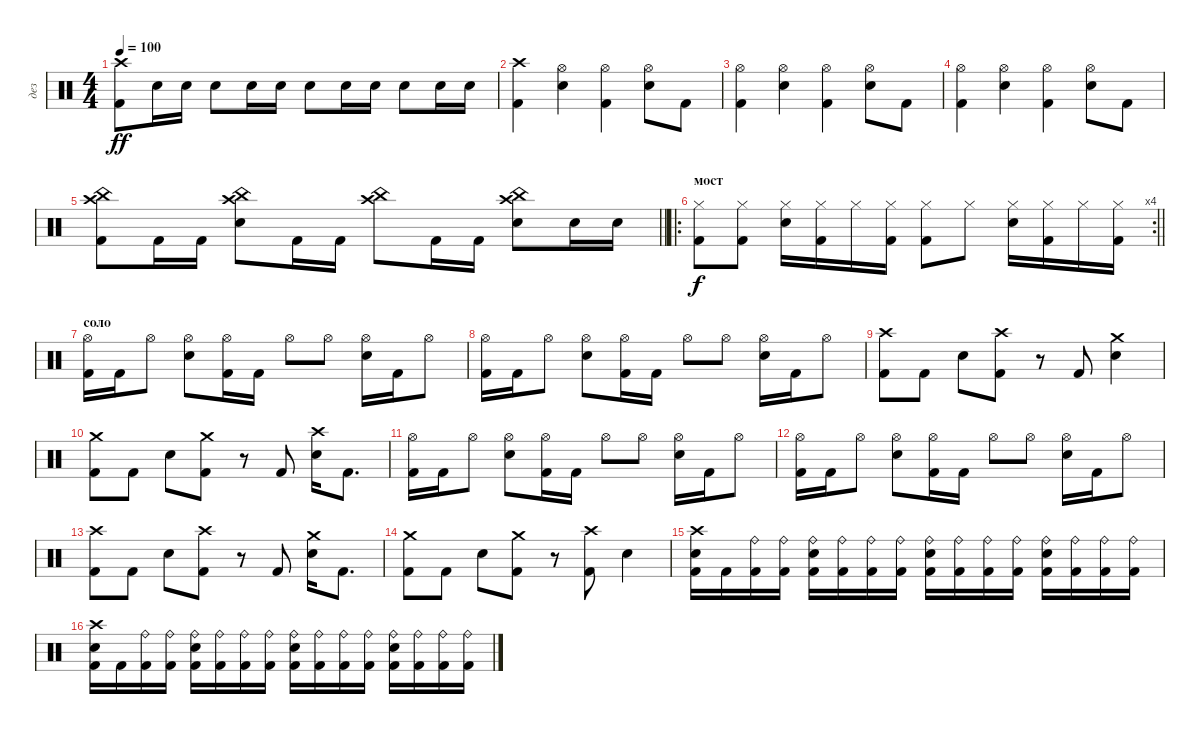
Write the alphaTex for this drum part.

\track ("дез" "дез") {instrument percussion}
\staff {score}
\articulation defaults
\ts (4 4)
\tempo 100
\clef neutral
\ks c
("Kick (hit) 2" "Crash high (hit)").8{dy ff} "Electric Snare (hit)".16 "Electric Snare (hit)".16 "Electric Snare (hit)".8 "Electric Snare (hit)".16 "Electric Snare (hit)".16 "Electric Snare (hit)".8 "Electric Snare (hit)".16 "Electric Snare (hit)".16 "Electric Snare (hit)".8 "Electric Snare (hit)".16 "Electric Snare (hit)".16 |
("Kick (hit) 2" "Crash high (hit)").4 ("Electric Snare (hit)" "Hi-Hat (open)").4 ("Kick (hit) 2" "Hi-Hat (open)").4 ("Electric Snare (hit)" "Hi-Hat (open)").8 "Kick (hit) 2".8 |
("Kick (hit) 2" "Hi-Hat (open)").4 ("Electric Snare (hit)" "Hi-Hat (open)").4 ("Kick (hit) 2" "Hi-Hat (open)").4 ("Electric Snare (hit)" "Hi-Hat (open)").8 "Kick (hit) 2".8 |
("Kick (hit) 2" "Hi-Hat (open)").4 ("Electric Snare (hit)" "Hi-Hat (open)").4 ("Kick (hit) 2" "Hi-Hat (open)").4 ("Electric Snare (hit)" "Hi-Hat (open)").8 "Kick (hit) 2".8 |
\barLineRight lightlight
("Kick (hit) 2" "Crash high (hit)" "China (hit)").8 "Kick (hit) 2".16 "Kick (hit) 2".16 ("Electric Snare (hit)" "Crash high (hit)" "China (hit)").8 "Kick (hit) 2".16 "Kick (hit) 2".16 ("Crash high (hit)" "China (hit)").8 "Kick (hit) 2".16 "Kick (hit) 2".16 ("Electric Snare (hit)" "Crash high (hit)" "China (hit)").8 "Electric Snare (hit)".16 "Electric Snare (hit)".16 |
\ro
\rc 4
\section ("" "мост")
\barLineRight lightlight
("Hi-Hat (closed)" "Kick (hit) 2").8{dy f} ("Hi-Hat (closed)" "Kick (hit) 2").8 ("Hi-Hat (closed)" "Electric Snare (hit)").16 ("Hi-Hat (closed)" "Kick (hit) 2").16 "Hi-Hat (closed)".16 ("Hi-Hat (closed)" "Kick (hit) 2").16 ("Hi-Hat (closed)" "Kick (hit) 2").8 "Hi-Hat (closed)".8 ("Hi-Hat (closed)" "Electric Snare (hit)").16 ("Hi-Hat (closed)" "Kick (hit) 2").16 "Hi-Hat (closed)".16 ("Hi-Hat (closed)" "Kick (hit) 2").16 |
\section ("" "соло")
("Hi-Hat (open)" "Kick (hit) 2").16 "Kick (hit) 2".16 "Hi-Hat (open)".8 ("Hi-Hat (open)" "Electric Snare (hit)").8 ("Hi-Hat (open)" "Kick (hit) 2").16 "Kick (hit) 2".16 "Hi-Hat (open)".8 "Hi-Hat (open)".8 ("Hi-Hat (open)" "Electric Snare (hit)").16 "Kick (hit) 2".16 "Hi-Hat (open)".8 |
("Hi-Hat (open)" "Kick (hit) 2").16 "Kick (hit) 2".16 "Hi-Hat (open)".8 ("Hi-Hat (open)" "Electric Snare (hit)").8 ("Hi-Hat (open)" "Kick (hit) 2").16 "Kick (hit) 2".16 "Hi-Hat (open)".8 "Hi-Hat (open)".8 ("Hi-Hat (open)" "Electric Snare (hit)").16 "Kick (hit) 2".16 "Hi-Hat (open)".8 |
("Crash high (hit)" "Kick (hit) 2").8 "Kick (hit) 2".8 "Electric Snare (hit)".8 ("Crash high (hit)" "Kick (hit) 2").8 r.8 "Kick (hit) 2".8 ("Crash medium (hit)" "Electric Snare (hit)").4 |
("Crash medium (hit)" "Kick (hit) 2").8 "Kick (hit) 2".8 "Electric Snare (hit)".8 ("Crash medium (hit)" "Kick (hit) 2").8 r.8 "Kick (hit) 2".8 ("Crash high (hit)" "Electric Snare (hit)").16 "Kick (hit) 2".8{d} |
("Hi-Hat (open)" "Kick (hit) 2").16 "Kick (hit) 2".16 "Hi-Hat (open)".8 ("Hi-Hat (open)" "Electric Snare (hit)").8 ("Hi-Hat (open)" "Kick (hit) 2").16 "Kick (hit) 2".16 "Hi-Hat (open)".8 "Hi-Hat (open)".8 ("Hi-Hat (open)" "Electric Snare (hit)").16 "Kick (hit) 2".16 "Hi-Hat (open)".8 |
("Hi-Hat (open)" "Kick (hit) 2").16 "Kick (hit) 2".16 "Hi-Hat (open)".8 ("Hi-Hat (open)" "Electric Snare (hit)").8 ("Hi-Hat (open)" "Kick (hit) 2").16 "Kick (hit) 2".16 "Hi-Hat (open)".8 "Hi-Hat (open)".8 ("Hi-Hat (open)" "Electric Snare (hit)").16 "Kick (hit) 2".16 "Hi-Hat (open)".8 |
("Crash high (hit)" "Kick (hit) 2").8 "Kick (hit) 2".8 "Electric Snare (hit)".8 ("Crash high (hit)" "Kick (hit) 2").8 r.8 "Kick (hit) 2".8 ("Crash medium (hit)" "Electric Snare (hit)").16 "Kick (hit) 2".8{d} |
("Crash medium (hit)" "Kick (hit) 2").8 "Kick (hit) 2".8 "Electric Snare (hit)".8 ("Crash medium (hit)" "Kick (hit) 2").8 r.8 ("Crash high (hit)" "Kick (hit) 2").8 "Electric Snare (hit)".4 |
("Crash high (hit)" "Electric Snare (hit)" "Kick (hit) 2").16 "Kick (hit) 2".16 ("Ride (bell)" "Kick (hit) 2").16 ("Ride (bell)" "Kick (hit) 2").16 ("Ride (bell)" "Electric Snare (hit)" "Kick (hit) 2").16 ("Ride (bell)" "Kick (hit) 2").16 ("Ride (bell)" "Kick (hit) 2").16 ("Ride (bell)" "Kick (hit) 2").16 ("Ride (bell)" "Electric Snare (hit)" "Kick (hit) 2").16 ("Ride (bell)" "Kick (hit) 2").16 ("Ride (bell)" "Kick (hit) 2").16 ("Ride (bell)" "Kick (hit) 2").16 ("Ride (bell)" "Electric Snare (hit)" "Kick (hit) 2").16 ("Ride (bell)" "Kick (hit) 2").16 ("Ride (bell)" "Kick (hit) 2").16 ("Ride (bell)" "Kick (hit) 2").16 |
("Crash high (hit)" "Electric Snare (hit)" "Kick (hit) 2").16 "Kick (hit) 2".16 ("Ride (bell)" "Kick (hit) 2").16 ("Ride (bell)" "Kick (hit) 2").16 ("Ride (bell)" "Electric Snare (hit)" "Kick (hit) 2").16 ("Ride (bell)" "Kick (hit) 2").16 ("Ride (bell)" "Kick (hit) 2").16 ("Ride (bell)" "Kick (hit) 2").16 ("Ride (bell)" "Electric Snare (hit)" "Kick (hit) 2").16 ("Ride (bell)" "Kick (hit) 2").16 ("Ride (bell)" "Kick (hit) 2").16 ("Ride (bell)" "Kick (hit) 2").16 ("Ride (bell)" "Electric Snare (hit)" "Kick (hit) 2").16 ("Ride (bell)" "Kick (hit) 2").16 ("Ride (bell)" "Kick (hit) 2").16 ("Ride (bell)" "Kick (hit) 2").16
